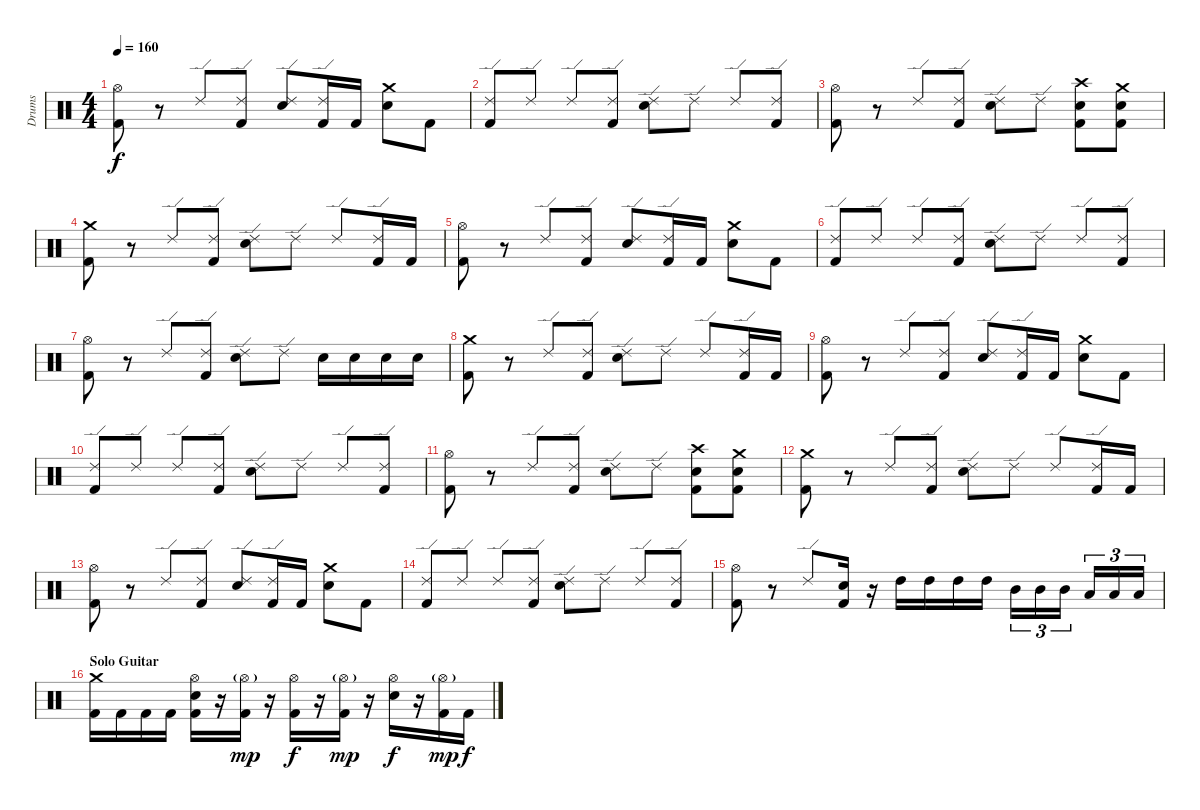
\track ("Drums" "Drums") {instrument percussion}
\staff {score}
\articulation defaults
\ts (4 4)
\tempo 160
\clef neutral
\ks c
("Kick (hit) 2" "Hi-Hat (open)").8{dy f} r.8 "Ride (edge) 2".8 ("Kick (hit) 2" "Ride (edge) 2").8 ("Electric Snare (hit)" "Ride (edge) 2").8 ("Kick (hit) 2" "Ride (edge) 2").16 "Kick (hit) 2".16 ("Electric Snare (hit)" "Crash medium (hit)").8 "Kick (hit) 2".8 |
("Kick (hit) 2" "Ride (edge) 2").8 "Ride (edge) 2".8 "Ride (edge) 2".8 ("Kick (hit) 2" "Ride (edge) 2").8 ("Electric Snare (hit)" "Ride (edge) 2").8 "Ride (edge) 2".8 "Ride (edge) 2".8 ("Kick (hit) 2" "Ride (edge) 2").8 |
("Kick (hit) 2" "Hi-Hat (open)").8 r.8 "Ride (edge) 2".8 ("Kick (hit) 2" "Ride (edge) 2").8 ("Electric Snare (hit)" "Ride (edge) 2").8 "Ride (edge) 2".8 ("Kick (hit) 2" "Snare (hit) 2" "Crash high (hit)").8 ("Kick (hit) 2" "Electric Snare (hit)" "Crash medium (hit)").8 |
("Kick (hit) 2" "Crash medium (hit)").8 r.8 "Ride (edge) 2".8 ("Kick (hit) 2" "Ride (edge) 2").8 ("Electric Snare (hit)" "Ride (edge) 2").8 "Ride (edge) 2".8 "Ride (edge) 2".8 ("Kick (hit) 2" "Ride (edge) 2").16 "Kick (hit) 2".16 |
("Kick (hit) 2" "Hi-Hat (open)").8 r.8 "Ride (edge) 2".8 ("Kick (hit) 2" "Ride (edge) 2").8 ("Electric Snare (hit)" "Ride (edge) 2").8 ("Kick (hit) 2" "Ride (edge) 2").16 "Kick (hit) 2".16 ("Electric Snare (hit)" "Crash medium (hit)").8 "Kick (hit) 2".8 |
("Kick (hit) 2" "Ride (edge) 2").8 "Ride (edge) 2".8 "Ride (edge) 2".8 ("Kick (hit) 2" "Ride (edge) 2").8 ("Electric Snare (hit)" "Ride (edge) 2").8 "Ride (edge) 2".8 "Ride (edge) 2".8 ("Kick (hit) 2" "Ride (edge) 2").8 |
("Kick (hit) 2" "Hi-Hat (open)").8 r.8 "Ride (edge) 2".8 ("Kick (hit) 2" "Ride (edge) 2").8 ("Electric Snare (hit)" "Ride (edge) 2").8 "Ride (edge) 2".8 "Electric Snare (hit)".16 "Electric Snare (hit)".16 "Electric Snare (hit)".16 "Electric Snare (hit)".16 |
("Kick (hit) 2" "Crash medium (hit)").8 r.8 "Ride (edge) 2".8 ("Kick (hit) 2" "Ride (edge) 2").8 ("Electric Snare (hit)" "Ride (edge) 2").8 "Ride (edge) 2".8 "Ride (edge) 2".8 ("Kick (hit) 2" "Ride (edge) 2").16 "Kick (hit) 2".16 |
("Kick (hit) 2" "Hi-Hat (open)").8 r.8 "Ride (edge) 2".8 ("Kick (hit) 2" "Ride (edge) 2").8 ("Electric Snare (hit)" "Ride (edge) 2").8 ("Kick (hit) 2" "Ride (edge) 2").16 "Kick (hit) 2".16 ("Electric Snare (hit)" "Crash medium (hit)").8 "Kick (hit) 2".8 |
("Kick (hit) 2" "Ride (edge) 2").8 "Ride (edge) 2".8 "Ride (edge) 2".8 ("Kick (hit) 2" "Ride (edge) 2").8 ("Electric Snare (hit)" "Ride (edge) 2").8 "Ride (edge) 2".8 "Ride (edge) 2".8 ("Kick (hit) 2" "Ride (edge) 2").8 |
("Kick (hit) 2" "Hi-Hat (open)").8 r.8 "Ride (edge) 2".8 ("Kick (hit) 2" "Ride (edge) 2").8 ("Electric Snare (hit)" "Ride (edge) 2").8 "Ride (edge) 2".8 ("Kick (hit) 2" "Snare (hit) 2" "Crash high (hit)").8 ("Kick (hit) 2" "Electric Snare (hit)" "Crash medium (hit)").8 |
("Kick (hit) 2" "Crash medium (hit)").8 r.8 "Ride (edge) 2".8 ("Kick (hit) 2" "Ride (edge) 2").8 ("Electric Snare (hit)" "Ride (edge) 2").8 "Ride (edge) 2".8 "Ride (edge) 2".8 ("Kick (hit) 2" "Ride (edge) 2").16 "Kick (hit) 2".16 |
("Kick (hit) 2" "Hi-Hat (open)").8 r.8 "Ride (edge) 2".8 ("Kick (hit) 2" "Ride (edge) 2").8 ("Electric Snare (hit)" "Ride (edge) 2").8 ("Kick (hit) 2" "Ride (edge) 2").16 "Kick (hit) 2".16 ("Electric Snare (hit)" "Crash medium (hit)").8 "Kick (hit) 2".8 |
("Kick (hit) 2" "Ride (edge) 2").8 "Ride (edge) 2".8 "Ride (edge) 2".8 ("Kick (hit) 2" "Ride (edge) 2").8 ("Electric Snare (hit)" "Ride (edge) 2").8 "Ride (edge) 2".8 "Ride (edge) 2".8 ("Kick (hit) 2" "Ride (edge) 2").8 |
("Kick (hit) 2" "Hi-Hat (open)").8 r.8 "Ride (edge) 2".8 ("Kick (hit) 2" "Snare (hit) 2").16 r.16 "High Tom (hit)".16 "High Tom (hit)".16 "High Tom (hit)".16 "High Tom (hit)".16 "Mid Tom (hit)".16{tu (3 2)} "Mid Tom (hit)".16{tu (3 2)} "Mid Tom (hit)".16{tu (3 2)} "Low Tom (hit)".16{tu (3 2)} "Low Tom (hit)".16{tu (3 2)} "Low Tom (hit)".16{tu (3 2)} |
\section ("" "Solo Guitar")
("Kick (hit) 2" "Crash medium (hit)").16 "Kick (hit) 2".16 "Kick (hit) 2".16 "Kick (hit) 2".16 ("Kick (hit) 2" "Hi-Hat (open)" "Electric Snare (hit)").16 r.16 ("Kick (hit) 2" "Hi-Hat (open)"{g}).16{dy mp} r.16 ("Kick (hit) 2" "Hi-Hat (open)").16{dy f} r.16 ("Kick (hit) 2" "Hi-Hat (open)"{g}).16{dy mp} r.16 ("Electric Snare (hit)" "Hi-Hat (open)").16{dy f} r.16 ("Kick (hit) 2" "Hi-Hat (open)"{g}).16{dy mp} "Kick (hit) 2".16{dy f}
